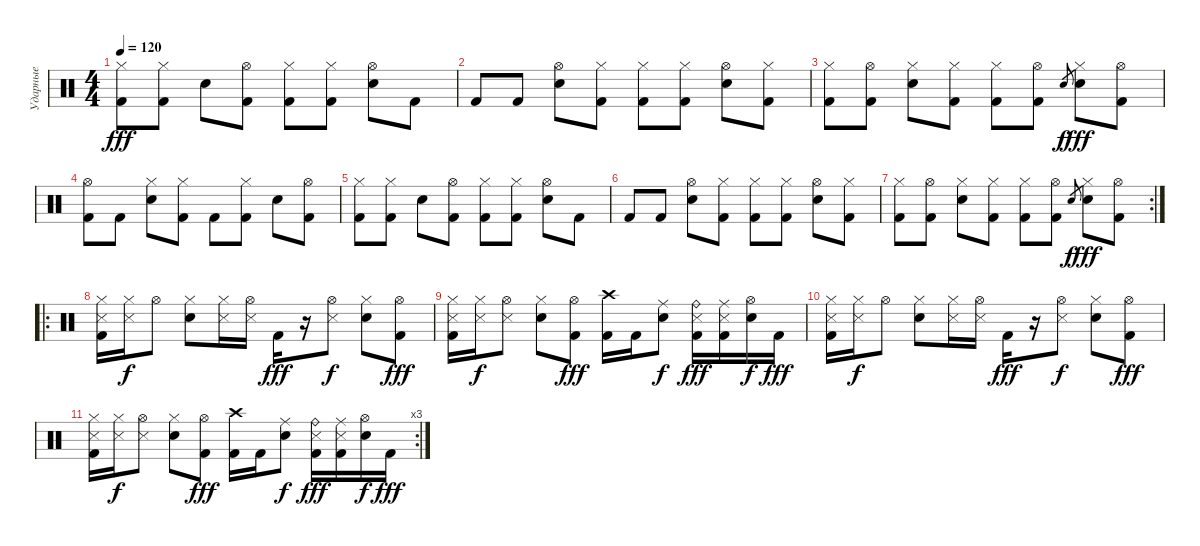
\track ("Ударные" "Ударные") {instrument percussion}
\staff {score}
\articulation defaults
\ts (4 4)
\tempo 120
\clef neutral
\ks c
("Hi-Hat (closed)" "Kick (hit) 2").8{dy fff} ("Hi-Hat (closed)" "Kick (hit) 2").8 "Electric Snare (hit)".8 ("Hi-Hat (open)" "Kick (hit) 2").8 ("Hi-Hat (closed)" "Kick (hit) 2").8 ("Hi-Hat (closed)" "Kick (hit) 2").8 ("Hi-Hat (open)" "Electric Snare (hit)").8 "Kick (hit) 2".8 |
"Kick (hit) 2".8 "Kick (hit) 2".8 ("Hi-Hat (open)" "Electric Snare (hit)").8 ("Hi-Hat (closed)" "Kick (hit) 2").8 ("Hi-Hat (closed)" "Kick (hit) 2").8 ("Hi-Hat (closed)" "Kick (hit) 2").8 ("Hi-Hat (open)" "Electric Snare (hit)").8 ("Hi-Hat (closed)" "Kick (hit) 2").8 |
("Hi-Hat (closed)" "Kick (hit) 2").8 ("Hi-Hat (open)" "Kick (hit) 2").8 ("Hi-Hat (closed)" "Electric Snare (hit)").8 ("Hi-Hat (closed)" "Kick (hit) 2").8 ("Hi-Hat (closed)" "Kick (hit) 2").8 ("Hi-Hat (open)" "Kick (hit) 2").8 "Electric Snare (hit)".8{gr dy f} ("Hi-Hat (closed)" "Electric Snare (hit)").8{dy fff} ("Hi-Hat (open)" "Kick (hit) 2").8 |
("Hi-Hat (open)" "Kick (hit) 2").8 "Kick (hit) 2".8 ("Hi-Hat (closed)" "Electric Snare (hit)").8 ("Hi-Hat (closed)" "Kick (hit) 2").8 "Kick (hit) 2".8 ("Hi-Hat (closed)" "Kick (hit) 2").8 "Electric Snare (hit)".8 ("Hi-Hat (open)" "Kick (hit) 2").8 |
("Hi-Hat (closed)" "Kick (hit) 2").8 ("Hi-Hat (closed)" "Kick (hit) 2").8 "Electric Snare (hit)".8 ("Hi-Hat (open)" "Kick (hit) 2").8 ("Hi-Hat (closed)" "Kick (hit) 2").8 ("Hi-Hat (closed)" "Kick (hit) 2").8 ("Hi-Hat (open)" "Electric Snare (hit)").8 "Kick (hit) 2".8 |
"Kick (hit) 2".8 "Kick (hit) 2".8 ("Hi-Hat (open)" "Electric Snare (hit)").8 ("Hi-Hat (closed)" "Kick (hit) 2").8 ("Hi-Hat (closed)" "Kick (hit) 2").8 ("Hi-Hat (closed)" "Kick (hit) 2").8 ("Hi-Hat (open)" "Electric Snare (hit)").8 ("Hi-Hat (closed)" "Kick (hit) 2").8 |
\rc 2
("Hi-Hat (closed)" "Kick (hit) 2").8 ("Hi-Hat (open)" "Kick (hit) 2").8 ("Hi-Hat (closed)" "Electric Snare (hit)").8 ("Hi-Hat (closed)" "Kick (hit) 2").8 ("Hi-Hat (closed)" "Kick (hit) 2").8 ("Hi-Hat (open)" "Kick (hit) 2").8 "Electric Snare (hit)".8{gr dy f} ("Hi-Hat (closed)" "Electric Snare (hit)").8{dy fff} ("Hi-Hat (open)" "Kick (hit) 2").8 |
\ro
("Hi-Hat (closed)" "Snare (side stick) 3" "Kick (hit) 2").16 ("Hi-Hat (closed)" "Snare (side stick) 3").16{dy f} "Hi-Hat (open)".8 ("Hi-Hat (closed)" "Electric Snare (hit)").8 ("Hi-Hat (closed)" "Snare (side stick) 3").16 ("Hi-Hat (open)" "Snare (side stick) 3").16 "Kick (hit) 2".16{dy fff} r.16 ("Hi-Hat (open)" "Snare (side stick) 3").8{dy f} ("Hi-Hat (closed)" "Electric Snare (hit)").8 ("Hi-Hat (open)" "Kick (hit) 2").8{dy fff} |
("Hi-Hat (closed)" "Snare (side stick) 3" "Kick (hit) 2").16 ("Hi-Hat (closed)" "Snare (side stick) 3").16{dy f} ("Hi-Hat (open)" "Snare (side stick) 3").8 ("Hi-Hat (closed)" "Electric Snare (hit)").8 ("Hi-Hat (open)" "Kick (hit) 2").8{dy fff} ("Crash high (hit)" "Kick (hit) 2").16 "Kick (hit) 2".16 ("Ride (middle)" "Electric Snare (hit)").8{dy f} ("Ride (bell)" "Snare (side stick) 3" "Kick (hit) 2").16{dy fff} ("Ride (middle)" "Snare (side stick) 3" "Kick (hit) 2").16 ("Hi-Hat (open)" "Electric Snare (hit)").16{dy f} "Kick (hit) 2".16{dy fff} |
("Hi-Hat (closed)" "Snare (side stick) 3" "Kick (hit) 2").16 ("Hi-Hat (closed)" "Snare (side stick) 3").16{dy f} "Hi-Hat (open)".8 ("Hi-Hat (closed)" "Electric Snare (hit)").8 ("Hi-Hat (closed)" "Snare (side stick) 3").16 ("Hi-Hat (open)" "Snare (side stick) 3").16 "Kick (hit) 2".16{dy fff} r.16 ("Hi-Hat (open)" "Snare (side stick) 3").8{dy f} ("Hi-Hat (closed)" "Electric Snare (hit)").8 ("Hi-Hat (open)" "Kick (hit) 2").8{dy fff} |
\rc 3
("Hi-Hat (closed)" "Snare (side stick) 3" "Kick (hit) 2").16 ("Hi-Hat (closed)" "Snare (side stick) 3").16{dy f} ("Hi-Hat (open)" "Snare (side stick) 3").8 ("Hi-Hat (closed)" "Electric Snare (hit)").8 ("Hi-Hat (open)" "Kick (hit) 2").8{dy fff} ("Crash high (hit)" "Kick (hit) 2").16 "Kick (hit) 2".16 ("Ride (middle)" "Electric Snare (hit)").8{dy f} ("Ride (bell)" "Snare (side stick) 3" "Kick (hit) 2").16{dy fff} ("Ride (middle)" "Snare (side stick) 3" "Kick (hit) 2").16 ("Hi-Hat (open)" "Electric Snare (hit)").16{dy f} "Kick (hit) 2".16{dy fff}
